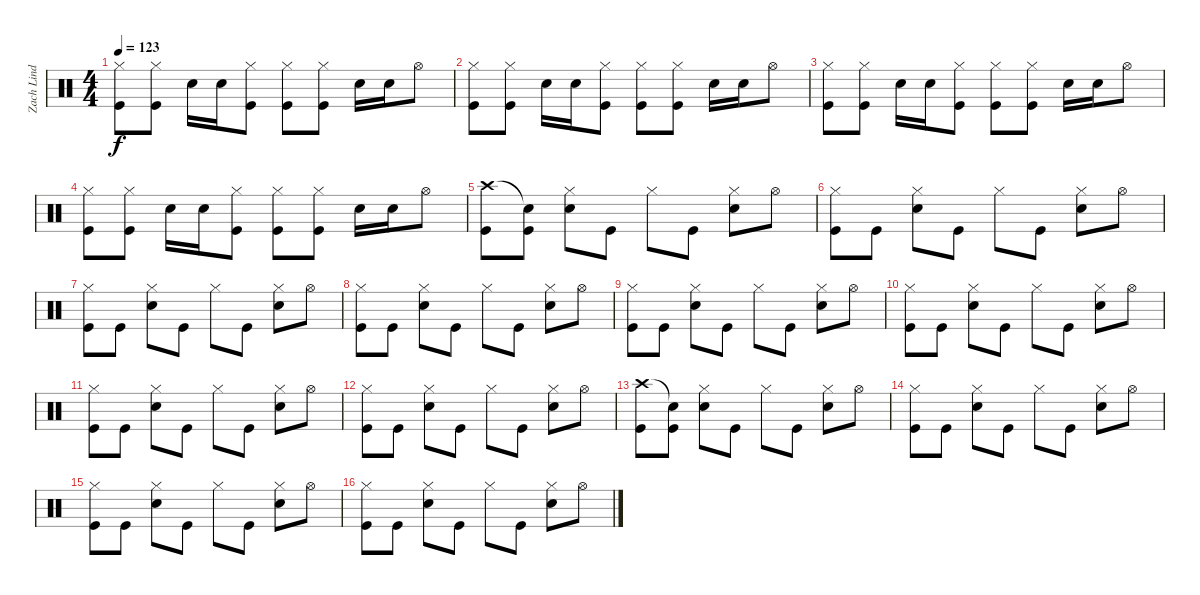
\track ("Zach Lind (Drums)" "Zach Lind ") {instrument percussion}
\staff {score}
\articulation defaults
\ts (4 4)
\tempo 123
\clef neutral
\ks c
("Hi-Hat (closed)" "Kick (hit)").8{dy f} ("Hi-Hat (closed)" "Kick (hit)").8 "Snare (hit) 2".16 "Snare (hit) 2".16 ("Hi-Hat (closed)" "Kick (hit)").8 ("Hi-Hat (closed)" "Kick (hit)").8 ("Hi-Hat (closed)" "Kick (hit)").8 "Snare (hit) 2".16 "Snare (hit) 2".16 "Hi-Hat (open)".8 |
("Hi-Hat (closed)" "Kick (hit)").8 ("Hi-Hat (closed)" "Kick (hit)").8 "Snare (hit) 2".16 "Snare (hit) 2".16 ("Hi-Hat (closed)" "Kick (hit)").8 ("Hi-Hat (closed)" "Kick (hit)").8 ("Hi-Hat (closed)" "Kick (hit)").8 "Snare (hit) 2".16 "Snare (hit) 2".16 "Hi-Hat (open)".8 |
("Hi-Hat (closed)" "Kick (hit)").8 ("Hi-Hat (closed)" "Kick (hit)").8 "Snare (hit) 2".16 "Snare (hit) 2".16 ("Hi-Hat (closed)" "Kick (hit)").8 ("Hi-Hat (closed)" "Kick (hit)").8 ("Hi-Hat (closed)" "Kick (hit)").8 "Snare (hit) 2".16 "Snare (hit) 2".16 "Hi-Hat (open)".8 |
("Hi-Hat (closed)" "Kick (hit)").8 ("Hi-Hat (closed)" "Kick (hit)").8 "Snare (hit) 2".16 "Snare (hit) 2".16 ("Hi-Hat (closed)" "Kick (hit)").8 ("Hi-Hat (closed)" "Kick (hit)").8 ("Hi-Hat (closed)" "Kick (hit)").8 "Snare (hit) 2".16 "Snare (hit) 2".16 "Hi-Hat (open)".8 |
("Crash high (hit)" "Kick (hit)").8 ("Snare (hit)"{t} "Kick (hit)").8 ("Hi-Hat (closed)" "Snare (hit) 2").8 "Kick (hit)".8 "Hi-Hat (closed)".8 "Kick (hit)".8 ("Hi-Hat (closed)" "Snare (hit) 2").8 "Hi-Hat (open)".8 |
("Hi-Hat (closed)" "Kick (hit)").8 "Kick (hit)".8 ("Hi-Hat (closed)" "Snare (hit) 2").8 "Kick (hit)".8 "Hi-Hat (closed)".8 "Kick (hit)".8 ("Hi-Hat (closed)" "Snare (hit) 2").8 "Hi-Hat (open)".8 |
("Hi-Hat (closed)" "Kick (hit)").8 "Kick (hit)".8 ("Hi-Hat (closed)" "Snare (hit) 2").8 "Kick (hit)".8 "Hi-Hat (closed)".8 "Kick (hit)".8 ("Hi-Hat (closed)" "Snare (hit) 2").8 "Hi-Hat (open)".8 |
("Hi-Hat (closed)" "Kick (hit)").8 "Kick (hit)".8 ("Hi-Hat (closed)" "Snare (hit) 2").8 "Kick (hit)".8 "Hi-Hat (closed)".8 "Kick (hit)".8 ("Hi-Hat (closed)" "Snare (hit) 2").8 "Hi-Hat (open)".8 |
("Hi-Hat (closed)" "Kick (hit)").8 "Kick (hit)".8 ("Hi-Hat (closed)" "Snare (hit) 2").8 "Kick (hit)".8 "Hi-Hat (closed)".8 "Kick (hit)".8 ("Hi-Hat (closed)" "Snare (hit) 2").8 "Hi-Hat (open)".8 |
("Hi-Hat (closed)" "Kick (hit)").8 "Kick (hit)".8 ("Hi-Hat (closed)" "Snare (hit) 2").8 "Kick (hit)".8 "Hi-Hat (closed)".8 "Kick (hit)".8 ("Hi-Hat (closed)" "Snare (hit) 2").8 "Hi-Hat (open)".8 |
("Hi-Hat (closed)" "Kick (hit)").8 "Kick (hit)".8 ("Hi-Hat (closed)" "Snare (hit) 2").8 "Kick (hit)".8 "Hi-Hat (closed)".8 "Kick (hit)".8 ("Hi-Hat (closed)" "Snare (hit) 2").8 "Hi-Hat (open)".8 |
("Hi-Hat (closed)" "Kick (hit)").8 "Kick (hit)".8 ("Hi-Hat (closed)" "Snare (hit) 2").8 "Kick (hit)".8 "Hi-Hat (closed)".8 "Kick (hit)".8 ("Hi-Hat (closed)" "Snare (hit) 2").8 "Hi-Hat (open)".8 |
("Crash high (hit)" "Kick (hit)").8 ("Snare (hit)"{t} "Kick (hit)").8 ("Hi-Hat (closed)" "Snare (hit) 2").8 "Kick (hit)".8 "Hi-Hat (closed)".8 "Kick (hit)".8 ("Hi-Hat (closed)" "Snare (hit) 2").8 "Hi-Hat (open)".8 |
("Hi-Hat (closed)" "Kick (hit)").8 "Kick (hit)".8 ("Hi-Hat (closed)" "Snare (hit) 2").8 "Kick (hit)".8 "Hi-Hat (closed)".8 "Kick (hit)".8 ("Hi-Hat (closed)" "Snare (hit) 2").8 "Hi-Hat (open)".8 |
("Hi-Hat (closed)" "Kick (hit)").8 "Kick (hit)".8 ("Hi-Hat (closed)" "Snare (hit) 2").8 "Kick (hit)".8 "Hi-Hat (closed)".8 "Kick (hit)".8 ("Hi-Hat (closed)" "Snare (hit) 2").8 "Hi-Hat (open)".8 |
("Hi-Hat (closed)" "Kick (hit)").8 "Kick (hit)".8 ("Hi-Hat (closed)" "Snare (hit) 2").8 "Kick (hit)".8 "Hi-Hat (closed)".8 "Kick (hit)".8 ("Hi-Hat (closed)" "Snare (hit) 2").8 "Hi-Hat (open)".8
